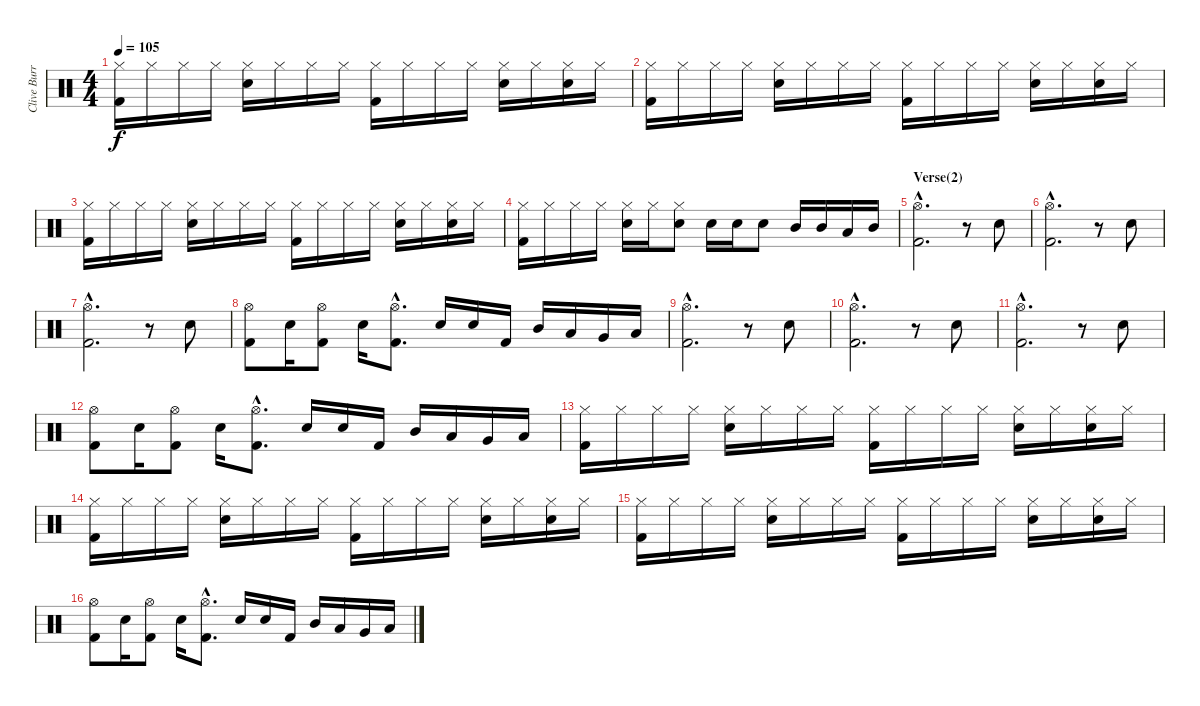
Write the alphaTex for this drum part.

\track ("Clive Burr (Drums)" "Clive Burr") {instrument percussion}
\staff {score}
\articulation defaults
\ts (4 4)
\tempo 105
\clef neutral
\ks c
("Hi-Hat (closed)" "Kick (hit) 2").16{dy f} "Hi-Hat (closed)".16 "Hi-Hat (closed)".16 "Hi-Hat (closed)".16 ("Electric Snare (hit)" "Hi-Hat (closed)").16 "Hi-Hat (closed)".16 "Hi-Hat (closed)".16 "Hi-Hat (closed)".16 ("Hi-Hat (closed)" "Kick (hit) 2").16 "Hi-Hat (closed)".16 "Hi-Hat (closed)".16 "Hi-Hat (closed)".16 ("Electric Snare (hit)" "Hi-Hat (closed)").16 "Hi-Hat (closed)".16 ("Electric Snare (hit)" "Hi-Hat (closed)").16 "Hi-Hat (closed)".16 |
("Hi-Hat (closed)" "Kick (hit) 2").16 "Hi-Hat (closed)".16 "Hi-Hat (closed)".16 "Hi-Hat (closed)".16 ("Electric Snare (hit)" "Hi-Hat (closed)").16 "Hi-Hat (closed)".16 "Hi-Hat (closed)".16 "Hi-Hat (closed)".16 ("Hi-Hat (closed)" "Kick (hit) 2").16 "Hi-Hat (closed)".16 "Hi-Hat (closed)".16 "Hi-Hat (closed)".16 ("Electric Snare (hit)" "Hi-Hat (closed)").16 "Hi-Hat (closed)".16 ("Electric Snare (hit)" "Hi-Hat (closed)").16 "Hi-Hat (closed)".16 |
("Hi-Hat (closed)" "Kick (hit) 2").16 "Hi-Hat (closed)".16 "Hi-Hat (closed)".16 "Hi-Hat (closed)".16 ("Electric Snare (hit)" "Hi-Hat (closed)").16 "Hi-Hat (closed)".16 "Hi-Hat (closed)".16 "Hi-Hat (closed)".16 ("Hi-Hat (closed)" "Kick (hit) 2").16 "Hi-Hat (closed)".16 "Hi-Hat (closed)".16 "Hi-Hat (closed)".16 ("Electric Snare (hit)" "Hi-Hat (closed)").16 "Hi-Hat (closed)".16 ("Electric Snare (hit)" "Hi-Hat (closed)").16 "Hi-Hat (closed)".16 |
("Hi-Hat (closed)" "Kick (hit) 2").16 "Hi-Hat (closed)".16 "Hi-Hat (closed)".16 "Hi-Hat (closed)".16 ("Electric Snare (hit)" "Hi-Hat (closed)").16 "Hi-Hat (closed)".16 ("Electric Snare (hit)" "Hi-Hat (closed)").8 "Electric Snare (hit)".16 "Electric Snare (hit)".16 "Electric Snare (hit)".8 "Mid Tom (hit)".16 "Mid Tom (hit)".16 "Low Tom (hit)".16 "Mid Tom (hit)".16 |
\section ("" "Verse(2)")
("Hi-Hat (open)"{hac} "Kick (hit) 2"{hac}).2{d} r.8 "Electric Snare (hit)".8 |
("Hi-Hat (open)"{hac} "Kick (hit) 2"{hac}).2{d} r.8 "Electric Snare (hit)".8 |
("Hi-Hat (open)"{hac} "Kick (hit) 2"{hac}).2{d} r.8 "Electric Snare (hit)".8 |
("Hi-Hat (open)" "Kick (hit) 2").8 "Electric Snare (hit)".16 ("Hi-Hat (open)" "Kick (hit) 2").8 "Electric Snare (hit)".16 ("Hi-Hat (open)"{hac} "Kick (hit) 2"{hac}).8{d} "Electric Snare (hit)".16 "Electric Snare (hit)".16 "Kick (hit) 2".16 "Mid Tom (hit)".16 "Low Tom (hit)".16 "Very Low Tom (hit)".16 "Low Tom (hit)".16 |
("Hi-Hat (open)"{hac} "Kick (hit) 2"{hac}).2{d} r.8 "Electric Snare (hit)".8 |
("Hi-Hat (open)"{hac} "Kick (hit) 2"{hac}).2{d} r.8 "Electric Snare (hit)".8 |
("Hi-Hat (open)"{hac} "Kick (hit) 2"{hac}).2{d} r.8 "Electric Snare (hit)".8 |
("Hi-Hat (open)" "Kick (hit) 2").8 "Electric Snare (hit)".16 ("Hi-Hat (open)" "Kick (hit) 2").8 "Electric Snare (hit)".16 ("Hi-Hat (open)"{hac} "Kick (hit) 2"{hac}).8{d} "Electric Snare (hit)".16 "Electric Snare (hit)".16 "Kick (hit) 2".16 "Mid Tom (hit)".16 "Low Tom (hit)".16 "Very Low Tom (hit)".16 "Low Tom (hit)".16 |
\section ("" "")
("Hi-Hat (closed)" "Kick (hit) 2").16 "Hi-Hat (closed)".16 "Hi-Hat (closed)".16 "Hi-Hat (closed)".16 ("Electric Snare (hit)" "Hi-Hat (closed)").16 "Hi-Hat (closed)".16 "Hi-Hat (closed)".16 "Hi-Hat (closed)".16 ("Hi-Hat (closed)" "Kick (hit) 2").16 "Hi-Hat (closed)".16 "Hi-Hat (closed)".16 "Hi-Hat (closed)".16 ("Electric Snare (hit)" "Hi-Hat (closed)").16 "Hi-Hat (closed)".16 ("Electric Snare (hit)" "Hi-Hat (closed)").16 "Hi-Hat (closed)".16 |
("Hi-Hat (closed)" "Kick (hit) 2").16 "Hi-Hat (closed)".16 "Hi-Hat (closed)".16 "Hi-Hat (closed)".16 ("Electric Snare (hit)" "Hi-Hat (closed)").16 "Hi-Hat (closed)".16 "Hi-Hat (closed)".16 "Hi-Hat (closed)".16 ("Hi-Hat (closed)" "Kick (hit) 2").16 "Hi-Hat (closed)".16 "Hi-Hat (closed)".16 "Hi-Hat (closed)".16 ("Electric Snare (hit)" "Hi-Hat (closed)").16 "Hi-Hat (closed)".16 ("Electric Snare (hit)" "Hi-Hat (closed)").16 "Hi-Hat (closed)".16 |
("Hi-Hat (closed)" "Kick (hit) 2").16 "Hi-Hat (closed)".16 "Hi-Hat (closed)".16 "Hi-Hat (closed)".16 ("Electric Snare (hit)" "Hi-Hat (closed)").16 "Hi-Hat (closed)".16 "Hi-Hat (closed)".16 "Hi-Hat (closed)".16 ("Hi-Hat (closed)" "Kick (hit) 2").16 "Hi-Hat (closed)".16 "Hi-Hat (closed)".16 "Hi-Hat (closed)".16 ("Electric Snare (hit)" "Hi-Hat (closed)").16 "Hi-Hat (closed)".16 ("Electric Snare (hit)" "Hi-Hat (closed)").16 "Hi-Hat (closed)".16 |
("Hi-Hat (open)" "Kick (hit) 2").8 "Electric Snare (hit)".16 ("Hi-Hat (open)" "Kick (hit) 2").8 "Electric Snare (hit)".16 ("Hi-Hat (open)"{hac} "Kick (hit) 2"{hac}).8{d} "Electric Snare (hit)".16 "Electric Snare (hit)".16 "Kick (hit) 2".16 "Mid Tom (hit)".16 "Low Tom (hit)".16 "Very Low Tom (hit)".16 "Low Tom (hit)".16
